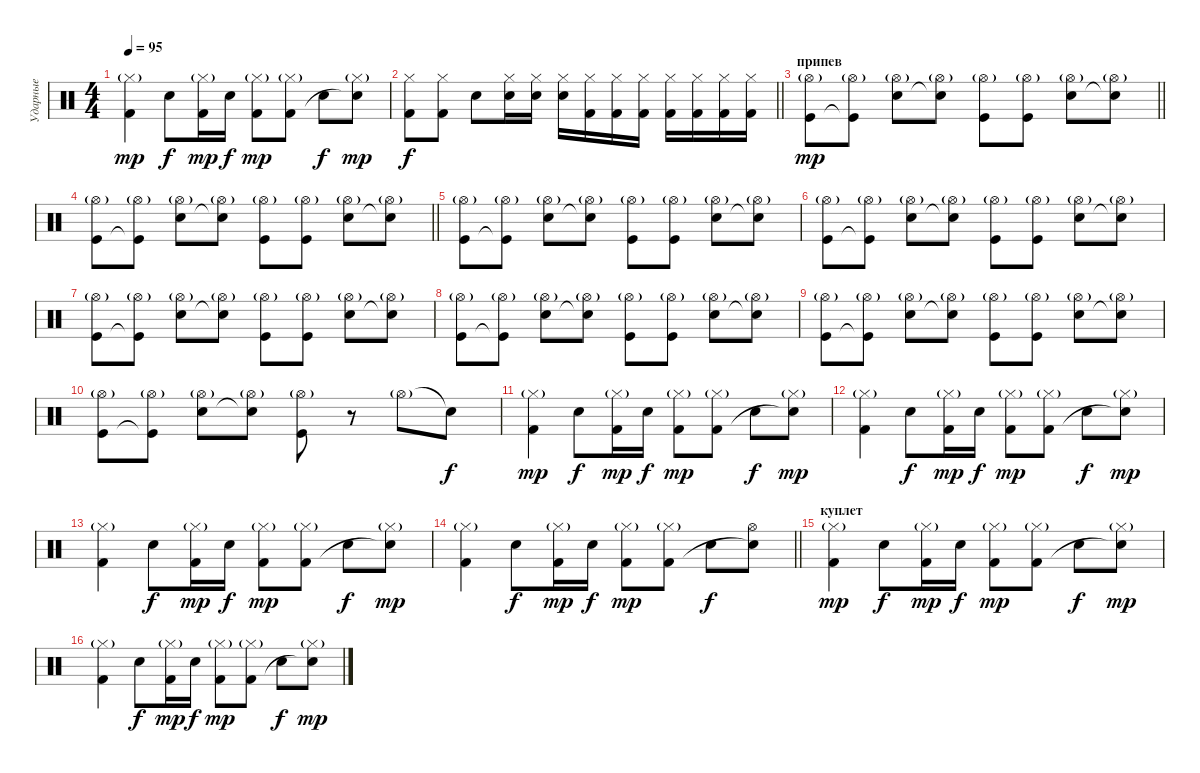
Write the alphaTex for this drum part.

\track ("Ударные" "Ударные") {instrument percussion}
\staff {score}
\articulation defaults
\ts (4 4)
\tempo 95
\clef neutral
\ks c
("Hi-Hat (closed)"{g} "Kick (hit) 2").4{dy mp} "Electric Snare (hit)".8{dy f} ("Hi-Hat (closed)"{g} "Kick (hit) 2").16{dy mp} "Electric Snare (hit)".16{dy f} ("Hi-Hat (closed)"{g} "Kick (hit) 2").8{dy mp} ("Hi-Hat (closed)"{g} "Kick (hit) 2").8 "Electric Snare (hit)".8{dy f} ("Hi-Hat (closed)"{g} "Snare (hit)"{t}).8{dy mp} |
\barLineRight lightlight
("Kick (hit) 2" "Hi-Hat (closed)").8{dy f} ("Hi-Hat (closed)" "Kick (hit) 2").8 "Snare (hit) 2".8 ("Snare (hit) 2" "Hi-Hat (closed)").16 ("Snare (hit) 2" "Hi-Hat (closed)").16 ("Snare (hit) 2" "Hi-Hat (closed)").16 ("Kick (hit) 2" "Hi-Hat (closed)").16 ("Kick (hit) 2" "Hi-Hat (closed)").16 ("Kick (hit) 2" "Hi-Hat (closed)").16 ("Kick (hit) 2" "Hi-Hat (closed)").16 ("Kick (hit) 2" "Hi-Hat (closed)").16 ("Kick (hit) 2" "Hi-Hat (closed)").16 ("Kick (hit) 2" "Hi-Hat (closed)").16 |
\section ("" "припев")
\barLineRight lightlight
("Hi-Hat (open)"{g} "Kick (hit)").8{dy mp} ("Hi-Hat (open)"{g} "Kick (hit)"{t}).8 ("Hi-Hat (open)"{g} "Snare (hit) 2").8 ("Hi-Hat (open)"{g} "Snare (hit) 2"{t}).8 ("Hi-Hat (open)"{g} "Kick (hit)").8 ("Hi-Hat (open)"{g} "Kick (hit)").8 ("Hi-Hat (open)"{g} "Snare (hit) 2").8 ("Hi-Hat (open)"{g} "Snare (hit) 2"{t}).8 |
\barLineRight lightlight
("Hi-Hat (open)"{g} "Kick (hit)").8 ("Hi-Hat (open)"{g} "Kick (hit)"{t}).8 ("Hi-Hat (open)"{g} "Snare (hit) 2").8 ("Hi-Hat (open)"{g} "Snare (hit) 2"{t}).8 ("Hi-Hat (open)"{g} "Kick (hit)").8 ("Hi-Hat (open)"{g} "Kick (hit)").8 ("Hi-Hat (open)"{g} "Snare (hit) 2").8 ("Hi-Hat (open)"{g} "Snare (hit) 2"{t}).8 |
("Hi-Hat (open)"{g} "Kick (hit)").8 ("Hi-Hat (open)"{g} "Kick (hit)"{t}).8 ("Hi-Hat (open)"{g} "Snare (hit) 2").8 ("Hi-Hat (open)"{g} "Snare (hit) 2"{t}).8 ("Hi-Hat (open)"{g} "Kick (hit)").8 ("Hi-Hat (open)"{g} "Kick (hit)").8 ("Hi-Hat (open)"{g} "Snare (hit) 2").8 ("Hi-Hat (open)"{g} "Snare (hit) 2"{t}).8 |
("Hi-Hat (open)"{g} "Kick (hit)").8 ("Hi-Hat (open)"{g} "Kick (hit)"{t}).8 ("Hi-Hat (open)"{g} "Snare (hit) 2").8 ("Hi-Hat (open)"{g} "Snare (hit) 2"{t}).8 ("Hi-Hat (open)"{g} "Kick (hit)").8 ("Hi-Hat (open)"{g} "Kick (hit)").8 ("Hi-Hat (open)"{g} "Snare (hit) 2").8 ("Hi-Hat (open)"{g} "Snare (hit) 2"{t}).8 |
("Hi-Hat (open)"{g} "Kick (hit)").8 ("Hi-Hat (open)"{g} "Kick (hit)"{t}).8 ("Hi-Hat (open)"{g} "Snare (hit) 2").8 ("Hi-Hat (open)"{g} "Snare (hit) 2"{t}).8 ("Hi-Hat (open)"{g} "Kick (hit)").8 ("Hi-Hat (open)"{g} "Kick (hit)").8 ("Hi-Hat (open)"{g} "Snare (hit) 2").8 ("Hi-Hat (open)"{g} "Snare (hit) 2"{t}).8 |
("Hi-Hat (open)"{g} "Kick (hit)").8 ("Hi-Hat (open)"{g} "Kick (hit)"{t}).8 ("Hi-Hat (open)"{g} "Snare (hit) 2").8 ("Hi-Hat (open)"{g} "Snare (hit) 2"{t}).8 ("Hi-Hat (open)"{g} "Kick (hit)").8 ("Hi-Hat (open)"{g} "Kick (hit)").8 ("Hi-Hat (open)"{g} "Snare (hit) 2").8 ("Hi-Hat (open)"{g} "Snare (hit) 2"{t}).8 |
("Hi-Hat (open)"{g} "Kick (hit)").8 ("Hi-Hat (open)"{g} "Kick (hit)"{t}).8 ("Hi-Hat (open)"{g} "Snare (hit) 2").8 ("Hi-Hat (open)"{g} "Snare (hit) 2"{t}).8 ("Hi-Hat (open)"{g} "Kick (hit)").8 ("Hi-Hat (open)"{g} "Kick (hit)").8 ("Hi-Hat (open)"{g} "Snare (hit) 2").8 ("Hi-Hat (open)"{g} "Snare (hit) 2"{t}).8 |
("Hi-Hat (open)"{g} "Kick (hit)").8 ("Hi-Hat (open)"{g} "Kick (hit)"{t}).8 ("Hi-Hat (open)"{g} "Snare (hit) 2").8 ("Hi-Hat (open)"{g} "Snare (hit) 2"{t}).8 ("Hi-Hat (open)"{g} "Kick (hit)").8 r.8 "Hi-Hat (open)"{g}.8 "Snare (hit)"{t}.8{dy f} |
("Hi-Hat (closed)"{g} "Kick (hit) 2").4{dy mp} "Electric Snare (hit)".8{dy f} ("Hi-Hat (closed)"{g} "Kick (hit) 2").16{dy mp} "Electric Snare (hit)".16{dy f} ("Hi-Hat (closed)"{g} "Kick (hit) 2").8{dy mp} ("Hi-Hat (closed)"{g} "Kick (hit) 2").8 "Electric Snare (hit)".8{dy f} ("Hi-Hat (closed)"{g} "Snare (hit)"{t}).8{dy mp} |
("Hi-Hat (closed)"{g} "Kick (hit) 2").4 "Electric Snare (hit)".8{dy f} ("Hi-Hat (closed)"{g} "Kick (hit) 2").16{dy mp} "Electric Snare (hit)".16{dy f} ("Hi-Hat (closed)"{g} "Kick (hit) 2").8{dy mp} ("Hi-Hat (closed)"{g} "Kick (hit) 2").8 "Electric Snare (hit)".8{dy f} ("Hi-Hat (closed)"{g} "Snare (hit)"{t}).8{dy mp} |
("Hi-Hat (closed)"{g} "Kick (hit) 2").4 "Electric Snare (hit)".8{dy f} ("Hi-Hat (closed)"{g} "Kick (hit) 2").16{dy mp} "Electric Snare (hit)".16{dy f} ("Hi-Hat (closed)"{g} "Kick (hit) 2").8{dy mp} ("Hi-Hat (closed)"{g} "Kick (hit) 2").8 "Electric Snare (hit)".8{dy f} ("Hi-Hat (closed)"{g} "Snare (hit)"{t}).8{dy mp} |
\barLineRight lightlight
("Hi-Hat (closed)"{g} "Kick (hit) 2").4 "Electric Snare (hit)".8{dy f} ("Hi-Hat (closed)"{g} "Kick (hit) 2").16{dy mp} "Electric Snare (hit)".16{dy f} ("Hi-Hat (closed)"{g} "Kick (hit) 2").8{dy mp} ("Hi-Hat (closed)"{g} "Kick (hit) 2").8 "Electric Snare (hit)".8{dy f} ("Hi-Hat (open)" "Snare (hit)"{t}).8 |
\section ("" "куплет")
("Hi-Hat (closed)"{g} "Kick (hit) 2").4{dy mp} "Electric Snare (hit)".8{dy f} ("Hi-Hat (closed)"{g} "Kick (hit) 2").16{dy mp} "Electric Snare (hit)".16{dy f} ("Hi-Hat (closed)"{g} "Kick (hit) 2").8{dy mp} ("Hi-Hat (closed)"{g} "Kick (hit) 2").8 "Electric Snare (hit)".8{dy f} ("Hi-Hat (closed)"{g} "Snare (hit)"{t}).8{dy mp} |
("Hi-Hat (closed)"{g} "Kick (hit) 2").4 "Electric Snare (hit)".8{dy f} ("Hi-Hat (closed)"{g} "Kick (hit) 2").16{dy mp} "Electric Snare (hit)".16{dy f} ("Hi-Hat (closed)"{g} "Kick (hit) 2").8{dy mp} ("Hi-Hat (closed)"{g} "Kick (hit) 2").8 "Electric Snare (hit)".8{dy f} ("Hi-Hat (closed)"{g} "Snare (hit)"{t}).8{dy mp}
